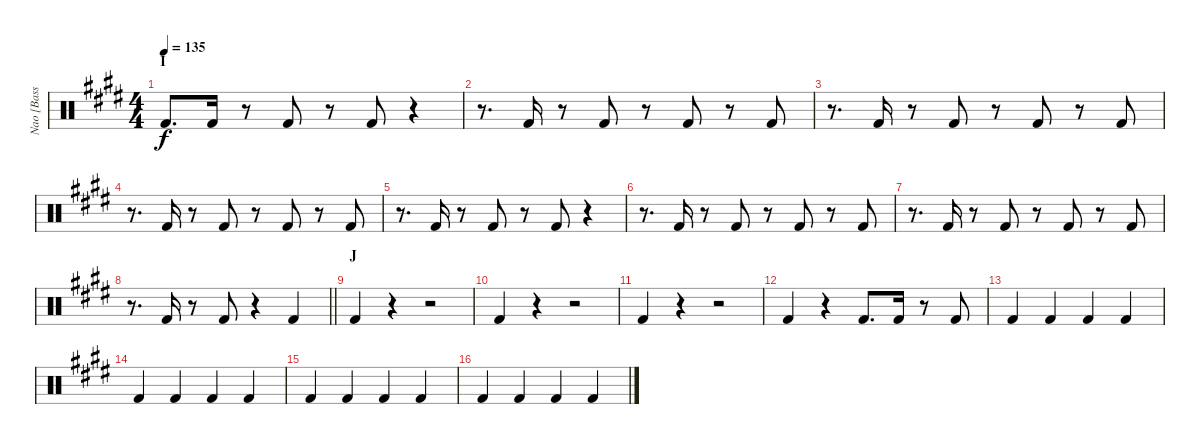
\track ("Nao [Bass Drum]" "Nao [Bass ") {instrument percussion}
\staff {score}
\articulation defaults
\ts (4 4)
\section ("" "I")
\tempo 135
\clef neutral
\ks e "Kick (hit) 2".8{d dy f} "Kick (hit) 2".16
r.8 "Kick (hit) 2".8 r.8 "Kick (hit) 2".8 r.4 |
r.8{d} "Kick (hit) 2".16 r.8 "Kick (hit) 2".8 r.8 "Kick (hit) 2".8 r.8 "Kick (hit) 2".8 |
r.8{d} "Kick (hit) 2".16 r.8 "Kick (hit) 2".8 r.8 "Kick (hit) 2".8 r.8 "Kick (hit) 2".8 |
r.8{d} "Kick (hit) 2".16 r.8 "Kick (hit) 2".8 r.8 "Kick (hit) 2".8 r.8 "Kick (hit) 2".8 |
r.8{d} "Kick (hit) 2".16 r.8 "Kick (hit) 2".8 r.8 "Kick (hit) 2".8 r.4 |
r.8{d} "Kick (hit) 2".16 r.8 "Kick (hit) 2".8 r.8 "Kick (hit) 2".8 r.8 "Kick (hit) 2".8 |
r.8{d} "Kick (hit) 2".16 r.8 "Kick (hit) 2".8 r.8 "Kick (hit) 2".8 r.8 "Kick (hit) 2".8 |
\barLineRight lightlight
r.8{d} "Kick (hit) 2".16 r.8 "Kick (hit) 2".8 r.4 "Kick (hit) 2".4 |
\section ("" "J")
"Kick (hit) 2".4 r.4 r.2 |
"Kick (hit) 2".4 r.4 r.2 |
"Kick (hit) 2".4 r.4 r.2 |
"Kick (hit) 2".4 r.4 "Kick (hit) 2".8{d} "Kick (hit) 2".16 r.8 "Kick (hit) 2".8 |
"Kick (hit) 2".4 "Kick (hit) 2".4 "Kick (hit) 2".4 "Kick (hit) 2".4 |
"Kick (hit) 2".4 "Kick (hit) 2".4 "Kick (hit) 2".4 "Kick (hit) 2".4 |
"Kick (hit) 2".4 "Kick (hit) 2".4 "Kick (hit) 2".4 "Kick (hit) 2".4 |
"Kick (hit) 2".4 "Kick (hit) 2".4 "Kick (hit) 2".4 "Kick (hit) 2".4
